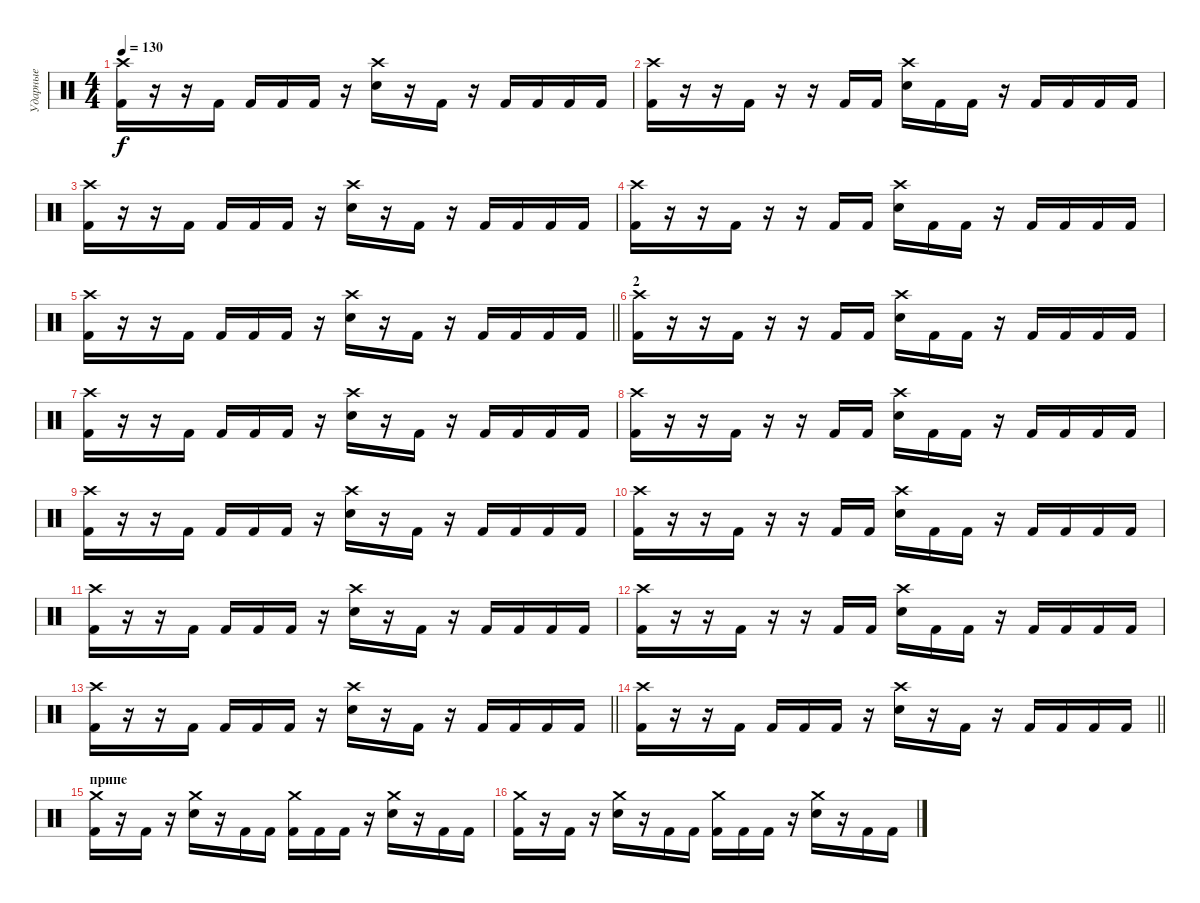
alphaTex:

\track ("Ударные" "Ударные") {instrument percussion}
\staff {score}
\articulation defaults
\ts (4 4)
\tempo 130
\clef neutral
\ks c
("Crash high (hit)" "Kick (hit) 2").16{dy f} r.16 r.16 "Kick (hit) 2".16 "Kick (hit) 2".16 "Kick (hit) 2".16 "Kick (hit) 2".16 r.16 ("Crash high (hit)" "Snare (hit) 2").16 r.16 "Kick (hit) 2".16 r.16 "Kick (hit) 2".16 "Kick (hit) 2".16 "Kick (hit) 2".16 "Kick (hit) 2".16 |
("Crash high (hit)" "Kick (hit) 2").16 r.16 r.16 "Kick (hit) 2".16 r.16 r.16 "Kick (hit) 2".16 "Kick (hit) 2".16 ("Crash high (hit)" "Snare (hit) 2").16 "Kick (hit) 2".16 "Kick (hit) 2".16 r.16 "Kick (hit) 2".16 "Kick (hit) 2".16 "Kick (hit) 2".16 "Kick (hit) 2".16 |
("Crash high (hit)" "Kick (hit) 2").16 r.16 r.16 "Kick (hit) 2".16 "Kick (hit) 2".16 "Kick (hit) 2".16 "Kick (hit) 2".16 r.16 ("Crash high (hit)" "Snare (hit) 2").16 r.16 "Kick (hit) 2".16 r.16 "Kick (hit) 2".16 "Kick (hit) 2".16 "Kick (hit) 2".16 "Kick (hit) 2".16 |
("Crash high (hit)" "Kick (hit) 2").16 r.16 r.16 "Kick (hit) 2".16 r.16 r.16 "Kick (hit) 2".16 "Kick (hit) 2".16 ("Crash high (hit)" "Snare (hit) 2").16 "Kick (hit) 2".16 "Kick (hit) 2".16 r.16 "Kick (hit) 2".16 "Kick (hit) 2".16 "Kick (hit) 2".16 "Kick (hit) 2".16 |
\barLineRight lightlight
("Crash high (hit)" "Kick (hit) 2").16 r.16 r.16 "Kick (hit) 2".16 "Kick (hit) 2".16 "Kick (hit) 2".16 "Kick (hit) 2".16 r.16 ("Crash high (hit)" "Snare (hit) 2").16 r.16 "Kick (hit) 2".16 r.16 "Kick (hit) 2".16 "Kick (hit) 2".16 "Kick (hit) 2".16 "Kick (hit) 2".16 |
\section ("" "2")
("Crash high (hit)" "Kick (hit) 2").16 r.16 r.16 "Kick (hit) 2".16 r.16 r.16 "Kick (hit) 2".16 "Kick (hit) 2".16 ("Crash high (hit)" "Snare (hit) 2").16 "Kick (hit) 2".16 "Kick (hit) 2".16 r.16 "Kick (hit) 2".16 "Kick (hit) 2".16 "Kick (hit) 2".16 "Kick (hit) 2".16 |
("Crash high (hit)" "Kick (hit) 2").16 r.16 r.16 "Kick (hit) 2".16 "Kick (hit) 2".16 "Kick (hit) 2".16 "Kick (hit) 2".16 r.16 ("Crash high (hit)" "Snare (hit) 2").16 r.16 "Kick (hit) 2".16 r.16 "Kick (hit) 2".16 "Kick (hit) 2".16 "Kick (hit) 2".16 "Kick (hit) 2".16 |
("Crash high (hit)" "Kick (hit) 2").16 r.16 r.16 "Kick (hit) 2".16 r.16 r.16 "Kick (hit) 2".16 "Kick (hit) 2".16 ("Crash high (hit)" "Snare (hit) 2").16 "Kick (hit) 2".16 "Kick (hit) 2".16 r.16 "Kick (hit) 2".16 "Kick (hit) 2".16 "Kick (hit) 2".16 "Kick (hit) 2".16 |
("Crash high (hit)" "Kick (hit) 2").16 r.16 r.16 "Kick (hit) 2".16 "Kick (hit) 2".16 "Kick (hit) 2".16 "Kick (hit) 2".16 r.16 ("Crash high (hit)" "Snare (hit) 2").16 r.16 "Kick (hit) 2".16 r.16 "Kick (hit) 2".16 "Kick (hit) 2".16 "Kick (hit) 2".16 "Kick (hit) 2".16 |
("Crash high (hit)" "Kick (hit) 2").16 r.16 r.16 "Kick (hit) 2".16 r.16 r.16 "Kick (hit) 2".16 "Kick (hit) 2".16 ("Crash high (hit)" "Snare (hit) 2").16 "Kick (hit) 2".16 "Kick (hit) 2".16 r.16 "Kick (hit) 2".16 "Kick (hit) 2".16 "Kick (hit) 2".16 "Kick (hit) 2".16 |
("Crash high (hit)" "Kick (hit) 2").16 r.16 r.16 "Kick (hit) 2".16 "Kick (hit) 2".16 "Kick (hit) 2".16 "Kick (hit) 2".16 r.16 ("Crash high (hit)" "Snare (hit) 2").16 r.16 "Kick (hit) 2".16 r.16 "Kick (hit) 2".16 "Kick (hit) 2".16 "Kick (hit) 2".16 "Kick (hit) 2".16 |
("Crash high (hit)" "Kick (hit) 2").16 r.16 r.16 "Kick (hit) 2".16 r.16 r.16 "Kick (hit) 2".16 "Kick (hit) 2".16 ("Crash high (hit)" "Snare (hit) 2").16 "Kick (hit) 2".16 "Kick (hit) 2".16 r.16 "Kick (hit) 2".16 "Kick (hit) 2".16 "Kick (hit) 2".16 "Kick (hit) 2".16 |
\barLineRight lightlight
("Crash high (hit)" "Kick (hit) 2").16 r.16 r.16 "Kick (hit) 2".16 "Kick (hit) 2".16 "Kick (hit) 2".16 "Kick (hit) 2".16 r.16 ("Crash high (hit)" "Snare (hit) 2").16 r.16 "Kick (hit) 2".16 r.16 "Kick (hit) 2".16 "Kick (hit) 2".16 "Kick (hit) 2".16 "Kick (hit) 2".16 |
\barLineRight lightlight
("Crash high (hit)" "Kick (hit) 2").16 r.16 r.16 "Kick (hit) 2".16 "Kick (hit) 2".16 "Kick (hit) 2".16 "Kick (hit) 2".16 r.16 ("Crash high (hit)" "Snare (hit) 2").16 r.16 "Kick (hit) 2".16 r.16 "Kick (hit) 2".16 "Kick (hit) 2".16 "Kick (hit) 2".16 "Kick (hit) 2".16 |
\section ("" "припе")
("Crash medium (hit)" "Kick (hit) 2").16 r.16 "Kick (hit) 2".16 r.16 ("Crash medium (hit)" "Snare (hit) 2").16 r.16 "Kick (hit) 2".16 "Kick (hit) 2".16 ("Crash medium (hit)" "Kick (hit) 2").16 "Kick (hit) 2".16 "Kick (hit) 2".16 r.16 ("Crash medium (hit)" "Snare (hit) 2").16 r.16 "Kick (hit) 2".16 "Kick (hit) 2".16 |
("Crash medium (hit)" "Kick (hit) 2").16 r.16 "Kick (hit) 2".16 r.16 ("Crash medium (hit)" "Snare (hit) 2").16 r.16 "Kick (hit) 2".16 "Kick (hit) 2".16 ("Crash medium (hit)" "Kick (hit) 2").16 "Kick (hit) 2".16 "Kick (hit) 2".16 r.16 ("Crash medium (hit)" "Snare (hit) 2").16 r.16 "Kick (hit) 2".16 "Kick (hit) 2".16
